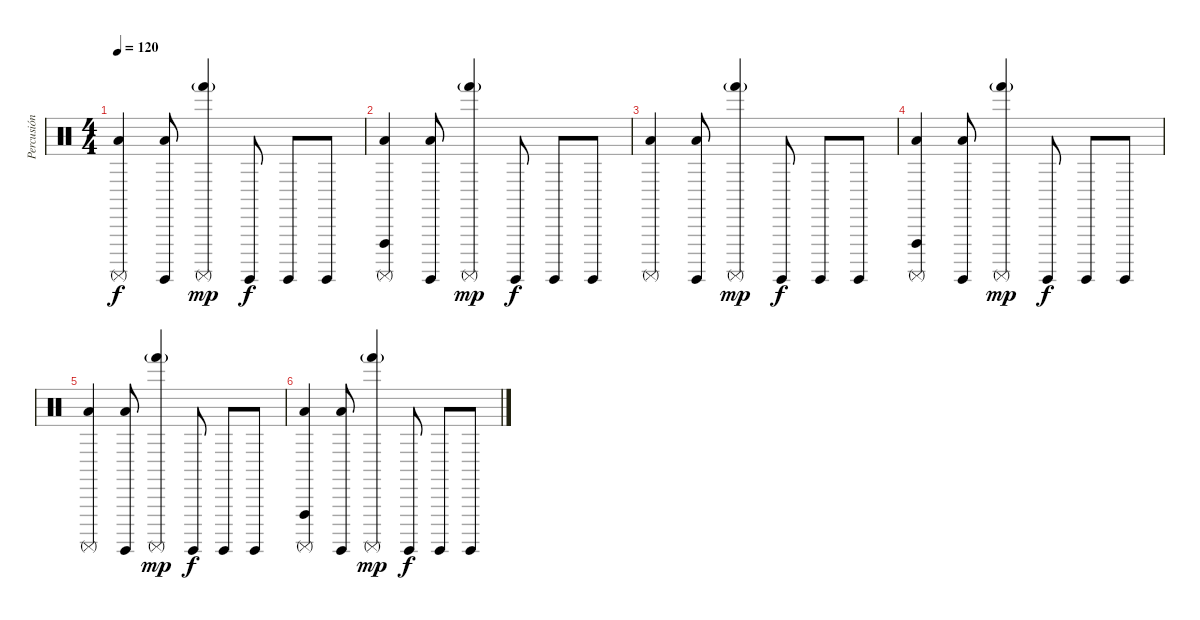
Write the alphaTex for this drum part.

\track ("Percusión" "Percusión") {instrument percussion}
\staff {score}
\articulation defaults
\ts (4 4)
\tempo 120
\clef neutral
\ks c
("Low Floor Tom (hit)" "Surdo (mute)").4{dy f} ("Low Floor Tom (hit)" "Surdo (hit)").8 ("Surdo (mute)" "Hand (hit)"{g}).4{dy mp} "Surdo (hit)".8{dy f} "Surdo (hit)".8 "Surdo (hit)".8 |
("Vibraslap (hit)" "Low Floor Tom (hit)" "Surdo (mute)").4 ("Low Floor Tom (hit)" "Surdo (hit)").8 ("Surdo (mute)" "Hand (hit)"{g}).4{dy mp} "Surdo (hit)".8{dy f} "Surdo (hit)".8 "Surdo (hit)".8 |
("Low Floor Tom (hit)" "Surdo (mute)").4 ("Low Floor Tom (hit)" "Surdo (hit)").8 ("Surdo (mute)" "Hand (hit)"{g}).4{dy mp} "Surdo (hit)".8{dy f} "Surdo (hit)".8 "Surdo (hit)".8 |
("Vibraslap (hit)" "Low Floor Tom (hit)" "Surdo (mute)").4 ("Low Floor Tom (hit)" "Surdo (hit)").8 ("Surdo (mute)" "Hand (hit)"{g}).4{dy mp} "Surdo (hit)".8{dy f} "Surdo (hit)".8 "Surdo (hit)".8 |
("Low Floor Tom (hit)" "Surdo (mute)").4 ("Low Floor Tom (hit)" "Surdo (hit)").8 ("Surdo (mute)" "Hand (hit)"{g}).4{dy mp} "Surdo (hit)".8{dy f} "Surdo (hit)".8 "Surdo (hit)".8 |
("Vibraslap (hit)" "Low Floor Tom (hit)" "Surdo (mute)").4 ("Low Floor Tom (hit)" "Surdo (hit)").8 ("Surdo (mute)" "Hand (hit)"{g}).4{dy mp} "Surdo (hit)".8{dy f} "Surdo (hit)".8 "Surdo (hit)".8
